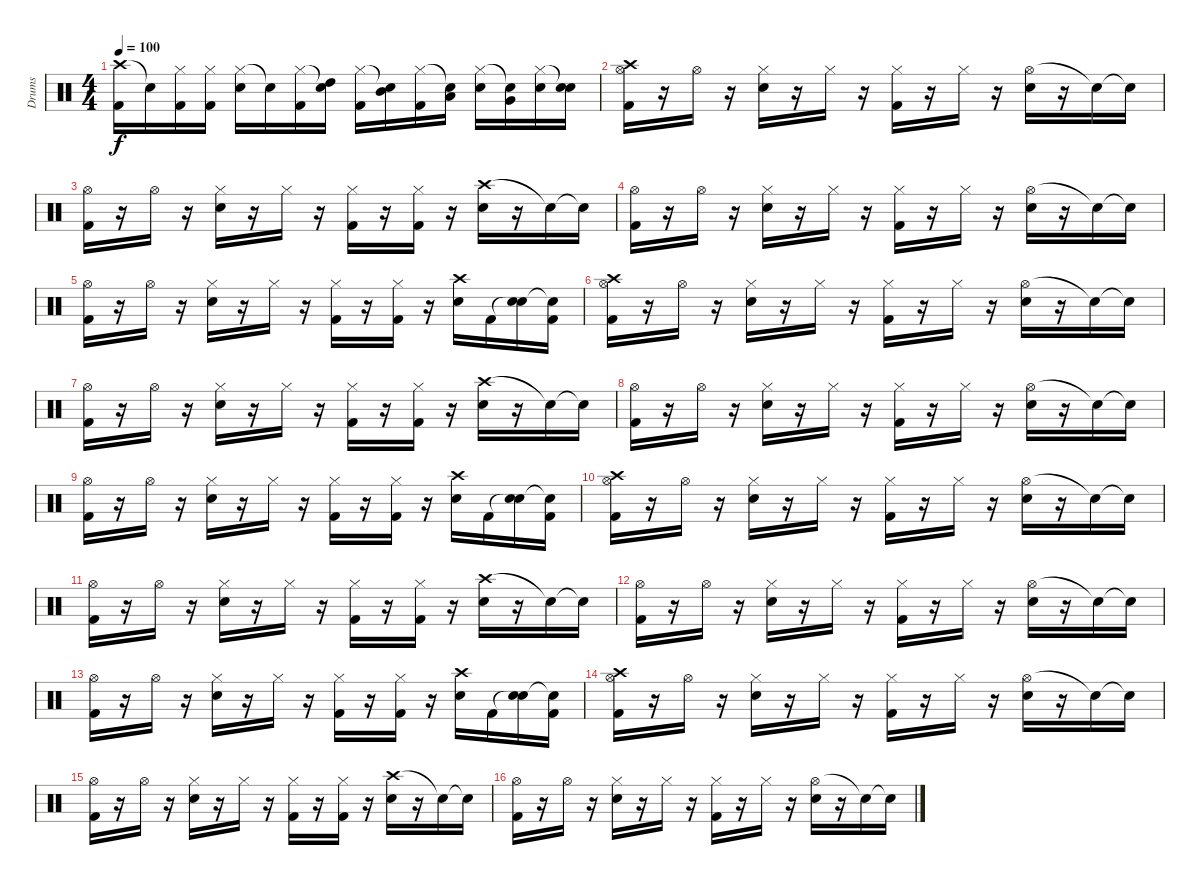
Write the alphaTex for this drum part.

\track ("Drums" "Drums") {instrument percussion}
\staff {score}
\articulation defaults
\ts (4 4)
\tempo 100
\clef neutral
\ks c
("Crash high (hit)" "Kick (hit) 2").16{dy f} "Snare (hit)"{t}.16 ("Hi-Hat (closed)" "Kick (hit) 2").16 ("Hi-Hat (closed)" "Kick (hit) 2").16 ("Hi-Hat (closed)" "Electric Snare (hit)").16 "Snare (hit)"{t}.16 ("Hi-Hat (closed)" "Kick (hit) 2").16 ("Snare (hit)"{t} "High Tom (hit)").16 ("Hi-Hat (closed)" "Kick (hit) 2").16 ("Snare (hit)"{t} "Mid Tom (hit)").16 ("Hi-Hat (closed)" "Kick (hit) 2").16 ("Snare (hit)"{t} "Low Tom (hit)").16 ("Hi-Hat (closed)" "Electric Snare (hit)").16 ("Snare (hit)"{t} "Very Low Tom (hit)").16 ("Hi-Hat (closed)" "Electric Snare (hit)").16 ("Snare (hit)"{t} "Electric Snare (hit)").16 |
("Crash high (hit)" "Hi-Hat (open)" "Kick (hit) 2").16 r.16 "Hi-Hat (open)".16 r.16 ("Hi-Hat (closed)" "Electric Snare (hit)").16 r.16 "Hi-Hat (closed)".16 r.16 ("Hi-Hat (closed)" "Kick (hit) 2").16 r.16 "Hi-Hat (closed)".16 r.16 ("Hi-Hat (open)" "Electric Snare (hit)").16 r.16 "Snare (hit)"{t}.16 "Snare (hit)"{t}.16 |
("Hi-Hat (open)" "Kick (hit) 2").16 r.16 "Hi-Hat (open)".16 r.16 ("Hi-Hat (closed)" "Electric Snare (hit)").16 r.16 "Hi-Hat (closed)".16 r.16 ("Hi-Hat (closed)" "Kick (hit) 2").16 r.16 ("Hi-Hat (closed)" "Kick (hit) 2").16 r.16 ("Crash high (hit)" "Electric Snare (hit)").16 r.16 "Snare (hit)"{t}.16 "Snare (hit)"{t}.16 |
("Hi-Hat (open)" "Kick (hit) 2").16 r.16 "Hi-Hat (open)".16 r.16 ("Hi-Hat (closed)" "Electric Snare (hit)").16 r.16 "Hi-Hat (closed)".16 r.16 ("Hi-Hat (closed)" "Kick (hit) 2").16 r.16 "Hi-Hat (closed)".16 r.16 ("Hi-Hat (open)" "Electric Snare (hit)").16 r.16 "Snare (hit)"{t}.16 "Snare (hit)"{t}.16 |
("Hi-Hat (open)" "Kick (hit) 2").16 r.16 "Hi-Hat (open)".16 r.16 ("Hi-Hat (closed)" "Electric Snare (hit)").16 r.16 "Hi-Hat (closed)".16 r.16 ("Hi-Hat (closed)" "Kick (hit) 2").16 r.16 ("Hi-Hat (closed)" "Kick (hit) 2").16 r.16 ("Crash high (hit)" "Electric Snare (hit)").16 "Kick (hit) 2".16 ("Snare (hit)"{t} "Electric Snare (hit)").16 ("Snare (hit)"{t} "Kick (hit) 2").16 |
("Crash high (hit)" "Hi-Hat (open)" "Kick (hit) 2").16 r.16 "Hi-Hat (open)".16 r.16 ("Hi-Hat (closed)" "Electric Snare (hit)").16 r.16 "Hi-Hat (closed)".16 r.16 ("Hi-Hat (closed)" "Kick (hit) 2").16 r.16 "Hi-Hat (closed)".16 r.16 ("Hi-Hat (open)" "Electric Snare (hit)").16 r.16 "Snare (hit)"{t}.16 "Snare (hit)"{t}.16 |
("Hi-Hat (open)" "Kick (hit) 2").16 r.16 "Hi-Hat (open)".16 r.16 ("Hi-Hat (closed)" "Electric Snare (hit)").16 r.16 "Hi-Hat (closed)".16 r.16 ("Hi-Hat (closed)" "Kick (hit) 2").16 r.16 ("Hi-Hat (closed)" "Kick (hit) 2").16 r.16 ("Crash high (hit)" "Electric Snare (hit)").16 r.16 "Snare (hit)"{t}.16 "Snare (hit)"{t}.16 |
("Hi-Hat (open)" "Kick (hit) 2").16 r.16 "Hi-Hat (open)".16 r.16 ("Hi-Hat (closed)" "Electric Snare (hit)").16 r.16 "Hi-Hat (closed)".16 r.16 ("Hi-Hat (closed)" "Kick (hit) 2").16 r.16 "Hi-Hat (closed)".16 r.16 ("Hi-Hat (open)" "Electric Snare (hit)").16 r.16 "Snare (hit)"{t}.16 "Snare (hit)"{t}.16 |
("Hi-Hat (open)" "Kick (hit) 2").16 r.16 "Hi-Hat (open)".16 r.16 ("Hi-Hat (closed)" "Electric Snare (hit)").16 r.16 "Hi-Hat (closed)".16 r.16 ("Hi-Hat (closed)" "Kick (hit) 2").16 r.16 ("Hi-Hat (closed)" "Kick (hit) 2").16 r.16 ("Crash high (hit)" "Electric Snare (hit)").16 "Kick (hit) 2".16 ("Snare (hit)"{t} "Electric Snare (hit)").16 ("Snare (hit)"{t} "Kick (hit) 2").16 |
("Crash high (hit)" "Hi-Hat (open)" "Kick (hit) 2").16 r.16 "Hi-Hat (open)".16 r.16 ("Hi-Hat (closed)" "Electric Snare (hit)").16 r.16 "Hi-Hat (closed)".16 r.16 ("Hi-Hat (closed)" "Kick (hit) 2").16 r.16 "Hi-Hat (closed)".16 r.16 ("Hi-Hat (open)" "Electric Snare (hit)").16 r.16 "Snare (hit)"{t}.16 "Snare (hit)"{t}.16 |
("Hi-Hat (open)" "Kick (hit) 2").16 r.16 "Hi-Hat (open)".16 r.16 ("Hi-Hat (closed)" "Electric Snare (hit)").16 r.16 "Hi-Hat (closed)".16 r.16 ("Hi-Hat (closed)" "Kick (hit) 2").16 r.16 ("Hi-Hat (closed)" "Kick (hit) 2").16 r.16 ("Crash high (hit)" "Electric Snare (hit)").16 r.16 "Snare (hit)"{t}.16 "Snare (hit)"{t}.16 |
("Hi-Hat (open)" "Kick (hit) 2").16 r.16 "Hi-Hat (open)".16 r.16 ("Hi-Hat (closed)" "Electric Snare (hit)").16 r.16 "Hi-Hat (closed)".16 r.16 ("Hi-Hat (closed)" "Kick (hit) 2").16 r.16 "Hi-Hat (closed)".16 r.16 ("Hi-Hat (open)" "Electric Snare (hit)").16 r.16 "Snare (hit)"{t}.16 "Snare (hit)"{t}.16 |
("Hi-Hat (open)" "Kick (hit) 2").16 r.16 "Hi-Hat (open)".16 r.16 ("Hi-Hat (closed)" "Electric Snare (hit)").16 r.16 "Hi-Hat (closed)".16 r.16 ("Hi-Hat (closed)" "Kick (hit) 2").16 r.16 ("Hi-Hat (closed)" "Kick (hit) 2").16 r.16 ("Crash high (hit)" "Electric Snare (hit)").16 "Kick (hit) 2".16 ("Snare (hit)"{t} "Electric Snare (hit)").16 ("Snare (hit)"{t} "Kick (hit) 2").16 |
("Crash high (hit)" "Hi-Hat (open)" "Kick (hit) 2").16 r.16 "Hi-Hat (open)".16 r.16 ("Hi-Hat (closed)" "Electric Snare (hit)").16 r.16 "Hi-Hat (closed)".16 r.16 ("Hi-Hat (closed)" "Kick (hit) 2").16 r.16 "Hi-Hat (closed)".16 r.16 ("Hi-Hat (open)" "Electric Snare (hit)").16 r.16 "Snare (hit)"{t}.16 "Snare (hit)"{t}.16 |
("Hi-Hat (open)" "Kick (hit) 2").16 r.16 "Hi-Hat (open)".16 r.16 ("Hi-Hat (closed)" "Electric Snare (hit)").16 r.16 "Hi-Hat (closed)".16 r.16 ("Hi-Hat (closed)" "Kick (hit) 2").16 r.16 ("Hi-Hat (closed)" "Kick (hit) 2").16 r.16 ("Crash high (hit)" "Electric Snare (hit)").16 r.16 "Snare (hit)"{t}.16 "Snare (hit)"{t}.16 |
("Hi-Hat (open)" "Kick (hit) 2").16 r.16 "Hi-Hat (open)".16 r.16 ("Hi-Hat (closed)" "Electric Snare (hit)").16 r.16 "Hi-Hat (closed)".16 r.16 ("Hi-Hat (closed)" "Kick (hit) 2").16 r.16 "Hi-Hat (closed)".16 r.16 ("Hi-Hat (open)" "Electric Snare (hit)").16 r.16 "Snare (hit)"{t}.16 "Snare (hit)"{t}.16
